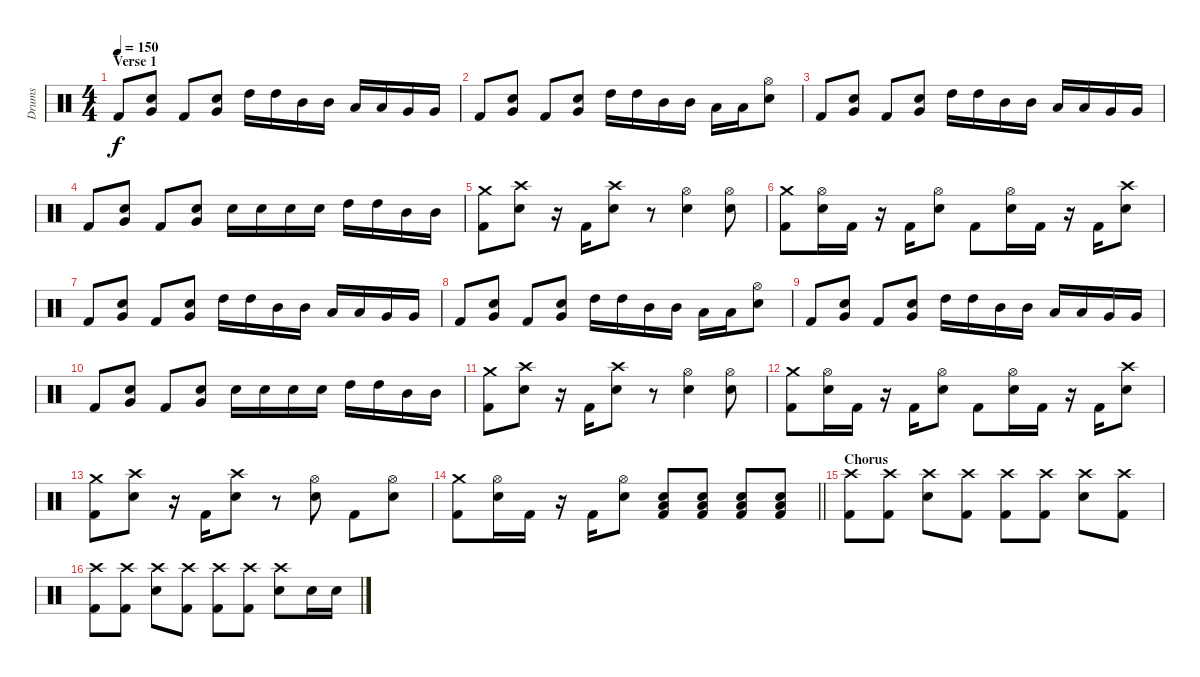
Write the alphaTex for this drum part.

\track ("Drums" "Drums") {instrument percussion}
\staff {score}
\articulation defaults
\ts (4 4)
\section ("" "Verse 1")
\tempo 150
\clef neutral
\ks c "Kick (hit) 2".8{dy f}
("Very Low Tom (hit)" "Electric Snare (hit)").8 "Kick (hit) 2".8 ("Very Low Tom (hit)" "Electric Snare (hit)").8 "High Tom (hit)".16 "High Tom (hit)".16 "Mid Tom (hit)".16 "Mid Tom (hit)".16 "Low Tom (hit)".16 "Low Tom (hit)".16 "Very Low Tom (hit)".16 "Very Low Tom (hit)".16 |
"Kick (hit) 2".8 ("Very Low Tom (hit)" "Electric Snare (hit)").8 "Kick (hit) 2".8 ("Very Low Tom (hit)" "Electric Snare (hit)").8 "High Tom (hit)".16 "High Tom (hit)".16 "Mid Tom (hit)".16 "Mid Tom (hit)".16 "Low Tom (hit)".16 "Low Tom (hit)".16 ("Hi-Hat (open)" "Electric Snare (hit)").8 |
"Kick (hit) 2".8 ("Very Low Tom (hit)" "Electric Snare (hit)").8 "Kick (hit) 2".8 ("Very Low Tom (hit)" "Electric Snare (hit)").8 "High Tom (hit)".16 "High Tom (hit)".16 "Mid Tom (hit)".16 "Mid Tom (hit)".16 "Low Tom (hit)".16 "Low Tom (hit)".16 "Very Low Tom (hit)".16 "Very Low Tom (hit)".16 |
"Kick (hit) 2".8 ("Very Low Tom (hit)" "Electric Snare (hit)").8 "Kick (hit) 2".8 ("Very Low Tom (hit)" "Electric Snare (hit)").8 "Electric Snare (hit)".16 "Electric Snare (hit)".16 "Electric Snare (hit)".16 "Electric Snare (hit)".16 "High Tom (hit)".16 "High Tom (hit)".16 "Mid Tom (hit)".16 "Mid Tom (hit)".16 |
("Crash medium (hit)" "Kick (hit) 2").8 ("Crash high (hit)" "Electric Snare (hit)").8 r.16 "Kick (hit) 2".16 ("Crash high (hit)" "Electric Snare (hit)").8 r.8 ("Hi-Hat (open)" "Electric Snare (hit)").4 ("Hi-Hat (open)" "Electric Snare (hit)").8 |
("Crash medium (hit)" "Kick (hit) 2").8 ("Hi-Hat (open)" "Electric Snare (hit)").16 "Kick (hit) 2".16 r.16 "Kick (hit) 2".16 ("Hi-Hat (open)" "Electric Snare (hit)").8 "Kick (hit) 2".8 ("Hi-Hat (open)" "Electric Snare (hit)").16 "Kick (hit) 2".16 r.16 "Kick (hit) 2".16 ("Crash high (hit)" "Electric Snare (hit)").8 |
"Kick (hit) 2".8 ("Very Low Tom (hit)" "Electric Snare (hit)").8 "Kick (hit) 2".8 ("Very Low Tom (hit)" "Electric Snare (hit)").8 "High Tom (hit)".16 "High Tom (hit)".16 "Mid Tom (hit)".16 "Mid Tom (hit)".16 "Low Tom (hit)".16 "Low Tom (hit)".16 "Very Low Tom (hit)".16 "Very Low Tom (hit)".16 |
"Kick (hit) 2".8 ("Very Low Tom (hit)" "Electric Snare (hit)").8 "Kick (hit) 2".8 ("Very Low Tom (hit)" "Electric Snare (hit)").8 "High Tom (hit)".16 "High Tom (hit)".16 "Mid Tom (hit)".16 "Mid Tom (hit)".16 "Low Tom (hit)".16 "Low Tom (hit)".16 ("Hi-Hat (open)" "Electric Snare (hit)").8 |
"Kick (hit) 2".8 ("Very Low Tom (hit)" "Electric Snare (hit)").8 "Kick (hit) 2".8 ("Very Low Tom (hit)" "Electric Snare (hit)").8 "High Tom (hit)".16 "High Tom (hit)".16 "Mid Tom (hit)".16 "Mid Tom (hit)".16 "Low Tom (hit)".16 "Low Tom (hit)".16 "Very Low Tom (hit)".16 "Very Low Tom (hit)".16 |
"Kick (hit) 2".8 ("Very Low Tom (hit)" "Electric Snare (hit)").8 "Kick (hit) 2".8 ("Very Low Tom (hit)" "Electric Snare (hit)").8 "Electric Snare (hit)".16 "Electric Snare (hit)".16 "Electric Snare (hit)".16 "Electric Snare (hit)".16 "High Tom (hit)".16 "High Tom (hit)".16 "Mid Tom (hit)".16 "Mid Tom (hit)".16 |
("Crash medium (hit)" "Kick (hit) 2").8 ("Crash high (hit)" "Electric Snare (hit)").8 r.16 "Kick (hit) 2".16 ("Crash high (hit)" "Electric Snare (hit)").8 r.8 ("Hi-Hat (open)" "Electric Snare (hit)").4 ("Hi-Hat (open)" "Electric Snare (hit)").8 |
("Crash medium (hit)" "Kick (hit) 2").8 ("Hi-Hat (open)" "Electric Snare (hit)").16 "Kick (hit) 2".16 r.16 "Kick (hit) 2".16 ("Hi-Hat (open)" "Electric Snare (hit)").8 "Kick (hit) 2".8 ("Hi-Hat (open)" "Electric Snare (hit)").16 "Kick (hit) 2".16 r.16 "Kick (hit) 2".16 ("Crash high (hit)" "Electric Snare (hit)").8 |
("Crash medium (hit)" "Kick (hit) 2").8 ("Crash high (hit)" "Electric Snare (hit)").8 r.16 "Kick (hit) 2".16 ("Crash high (hit)" "Electric Snare (hit)").8 r.8 ("Hi-Hat (open)" "Electric Snare (hit)").8 "Kick (hit) 2".8 ("Hi-Hat (open)" "Electric Snare (hit)").8 |
\barLineRight lightlight
("Crash medium (hit)" "Kick (hit) 2").8 ("Hi-Hat (open)" "Electric Snare (hit)").16 "Kick (hit) 2".16 r.16 "Kick (hit) 2".16 ("Hi-Hat (open)" "Electric Snare (hit)").8 ("Low Tom (hit)" "Electric Snare (hit)" "Kick (hit) 2").8 ("Low Tom (hit)" "Electric Snare (hit)" "Kick (hit) 2").8 ("Low Tom (hit)" "Electric Snare (hit)" "Kick (hit) 2").8 ("Low Tom (hit)" "Electric Snare (hit)" "Kick (hit) 2").8 |
\section ("" "Chorus")
("Crash high (hit)" "Kick (hit) 2").8 ("Crash high (hit)" "Kick (hit) 2").8 ("Crash high (hit)" "Electric Snare (hit)").8 ("Crash high (hit)" "Kick (hit) 2").8 ("Crash high (hit)" "Kick (hit) 2").8 ("Crash high (hit)" "Kick (hit) 2").8 ("Crash high (hit)" "Electric Snare (hit)").8 ("Crash high (hit)" "Kick (hit) 2").8 |
("Crash high (hit)" "Kick (hit) 2").8 ("Crash high (hit)" "Kick (hit) 2").8 ("Crash high (hit)" "Electric Snare (hit)").8 ("Crash high (hit)" "Kick (hit) 2").8 ("Crash high (hit)" "Kick (hit) 2").8 ("Crash high (hit)" "Kick (hit) 2").8 ("Crash high (hit)" "Electric Snare (hit)").8 "Electric Snare (hit)".16 "Electric Snare (hit)".16
